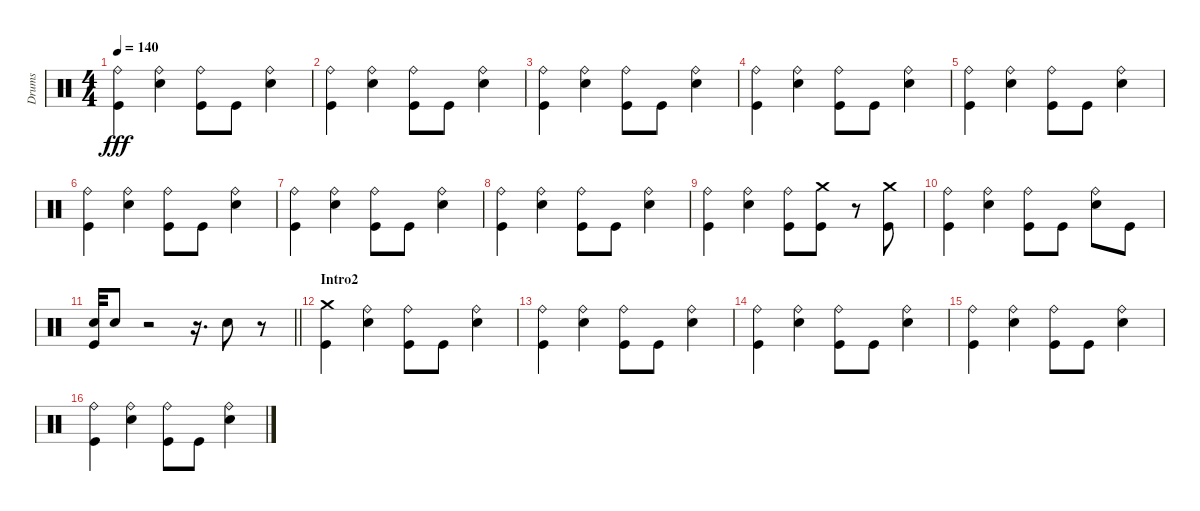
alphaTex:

\track ("Drums" "Drums") {instrument percussion}
\staff {score}
\articulation defaults
\ts (4 4)
\tempo 140
\clef neutral
\ks c
("Ride (bell)" "Kick (hit)").4{dy fff} ("Ride (bell)" "Electric Snare (hit)").4 ("Ride (bell)" "Kick (hit)").8 "Kick (hit)".8 ("Ride (bell)" "Electric Snare (hit)").4 |
("Ride (bell)" "Kick (hit)").4 ("Ride (bell)" "Electric Snare (hit)").4 ("Ride (bell)" "Kick (hit)").8 "Kick (hit)".8 ("Ride (bell)" "Electric Snare (hit)").4 |
("Ride (bell)" "Kick (hit)").4 ("Ride (bell)" "Electric Snare (hit)").4 ("Ride (bell)" "Kick (hit)").8 "Kick (hit)".8 ("Ride (bell)" "Electric Snare (hit)").4 |
("Ride (bell)" "Kick (hit)").4 ("Ride (bell)" "Electric Snare (hit)").4 ("Ride (bell)" "Kick (hit)").8 "Kick (hit)".8 ("Ride (bell)" "Electric Snare (hit)").4 |
("Ride (bell)" "Kick (hit)").4 ("Ride (bell)" "Electric Snare (hit)").4 ("Ride (bell)" "Kick (hit)").8 "Kick (hit)".8 ("Ride (bell)" "Electric Snare (hit)").4 |
("Ride (bell)" "Kick (hit)").4 ("Ride (bell)" "Electric Snare (hit)").4 ("Ride (bell)" "Kick (hit)").8 "Kick (hit)".8 ("Ride (bell)" "Electric Snare (hit)").4 |
("Ride (bell)" "Kick (hit)").4 ("Ride (bell)" "Electric Snare (hit)").4 ("Ride (bell)" "Kick (hit)").8 "Kick (hit)".8 ("Ride (bell)" "Electric Snare (hit)").4 |
("Ride (bell)" "Kick (hit)").4 ("Ride (bell)" "Electric Snare (hit)").4 ("Ride (bell)" "Kick (hit)").8 "Kick (hit)".8 ("Ride (bell)" "Electric Snare (hit)").4 |
("Ride (bell)" "Kick (hit)").4 ("Ride (bell)" "Electric Snare (hit)").4 ("Ride (bell)" "Kick (hit)").8 ("Crash medium (hit)" "Kick (hit)").8 r.8 ("Crash medium (hit)" "Kick (hit)").8 |
("Ride (bell)" "Kick (hit)").4 ("Ride (bell)" "Electric Snare (hit)").4 ("Ride (bell)" "Kick (hit)").8 "Kick (hit)".8 ("Ride (bell)" "Electric Snare (hit)").8 "Kick (hit)".8 |
\barLineRight lightlight
("Electric Snare (hit)" "Kick (hit)").32 "Electric Snare (hit)".8 r.2 r.16{d} "Electric Snare (hit)".8 r.8 |
\section ("" "Intro2")
("Crash medium (hit)" "Kick (hit)").4 ("Ride (bell)" "Electric Snare (hit)").4 ("Ride (bell)" "Kick (hit)").8 "Kick (hit)".8 ("Ride (bell)" "Electric Snare (hit)").4 |
("Ride (bell)" "Kick (hit)").4 ("Ride (bell)" "Electric Snare (hit)").4 ("Ride (bell)" "Kick (hit)").8 "Kick (hit)".8 ("Ride (bell)" "Electric Snare (hit)").4 |
("Ride (bell)" "Kick (hit)").4 ("Ride (bell)" "Electric Snare (hit)").4 ("Ride (bell)" "Kick (hit)").8 "Kick (hit)".8 ("Ride (bell)" "Electric Snare (hit)").4 |
("Ride (bell)" "Kick (hit)").4 ("Ride (bell)" "Electric Snare (hit)").4 ("Ride (bell)" "Kick (hit)").8 "Kick (hit)".8 ("Ride (bell)" "Electric Snare (hit)").4 |
("Ride (bell)" "Kick (hit)").4 ("Ride (bell)" "Electric Snare (hit)").4 ("Ride (bell)" "Kick (hit)").8 "Kick (hit)".8 ("Ride (bell)" "Electric Snare (hit)").4
